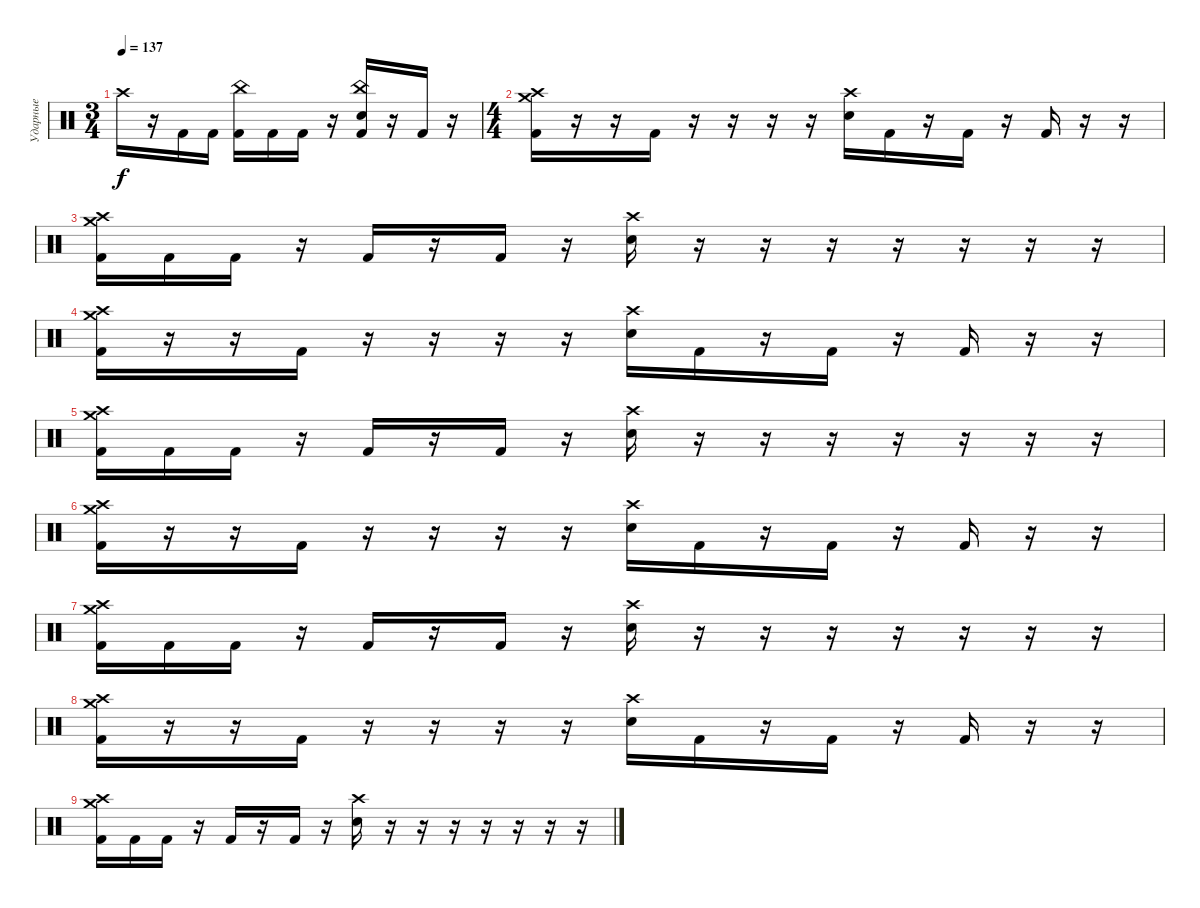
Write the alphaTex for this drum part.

\track ("Ударные" "Ударные") {instrument percussion}
\staff {score}
\articulation defaults
\ts (3 4)
\tempo 137
\clef neutral
\ks c "Crash high (hit)".16{dy f}
r.16 "Kick (hit) 2".16 "Kick (hit) 2".16 ("China (hit)" "Kick (hit) 2").16 "Kick (hit) 2".16 "Kick (hit) 2".16 r.16 ("China (hit)" "Electric Snare (hit)" "Kick (hit) 2").16 r.16 "Kick (hit) 2".16 r.16 |
\ts (4 4)
("Crash high (hit)" "Crash medium (hit)" "Kick (hit) 2").16 r.16 r.16 "Kick (hit) 2".16 r.16 r.16 r.16 r.16 ("Crash high (hit)" "Electric Snare (hit)").16 "Kick (hit) 2".16 r.16 "Kick (hit) 2".16 r.16 "Kick (hit) 2".16 r.16 r.16 |
("Crash high (hit)" "Crash medium (hit)" "Kick (hit) 2").16 "Kick (hit) 2".16 "Kick (hit) 2".16 r.16 "Kick (hit) 2".16 r.16 "Kick (hit) 2".16 r.16 ("Crash high (hit)" "Electric Snare (hit)").16 r.16 r.16 r.16 r.16 r.16 r.16 r.16 |
("Crash high (hit)" "Crash medium (hit)" "Kick (hit) 2").16 r.16 r.16 "Kick (hit) 2".16 r.16 r.16 r.16 r.16 ("Crash high (hit)" "Electric Snare (hit)").16 "Kick (hit) 2".16 r.16 "Kick (hit) 2".16 r.16 "Kick (hit) 2".16 r.16 r.16 |
("Crash high (hit)" "Crash medium (hit)" "Kick (hit) 2").16 "Kick (hit) 2".16 "Kick (hit) 2".16 r.16 "Kick (hit) 2".16 r.16 "Kick (hit) 2".16 r.16 ("Crash high (hit)" "Electric Snare (hit)").16 r.16 r.16 r.16 r.16 r.16 r.16 r.16 |
("Crash high (hit)" "Crash medium (hit)" "Kick (hit) 2").16 r.16 r.16 "Kick (hit) 2".16 r.16 r.16 r.16 r.16 ("Crash high (hit)" "Electric Snare (hit)").16 "Kick (hit) 2".16 r.16 "Kick (hit) 2".16 r.16 "Kick (hit) 2".16 r.16 r.16 |
("Crash high (hit)" "Crash medium (hit)" "Kick (hit) 2").16 "Kick (hit) 2".16 "Kick (hit) 2".16 r.16 "Kick (hit) 2".16 r.16 "Kick (hit) 2".16 r.16 ("Crash high (hit)" "Electric Snare (hit)").16 r.16 r.16 r.16 r.16 r.16 r.16 r.16 |
("Crash high (hit)" "Crash medium (hit)" "Kick (hit) 2").16 r.16 r.16 "Kick (hit) 2".16 r.16 r.16 r.16 r.16 ("Crash high (hit)" "Electric Snare (hit)").16 "Kick (hit) 2".16 r.16 "Kick (hit) 2".16 r.16 "Kick (hit) 2".16 r.16 r.16 |
("Crash high (hit)" "Crash medium (hit)" "Kick (hit) 2").16 "Kick (hit) 2".16 "Kick (hit) 2".16 r.16 "Kick (hit) 2".16 r.16 "Kick (hit) 2".16 r.16 ("Crash high (hit)" "Electric Snare (hit)").16 r.16 r.16 r.16 r.16 r.16 r.16 r.16
